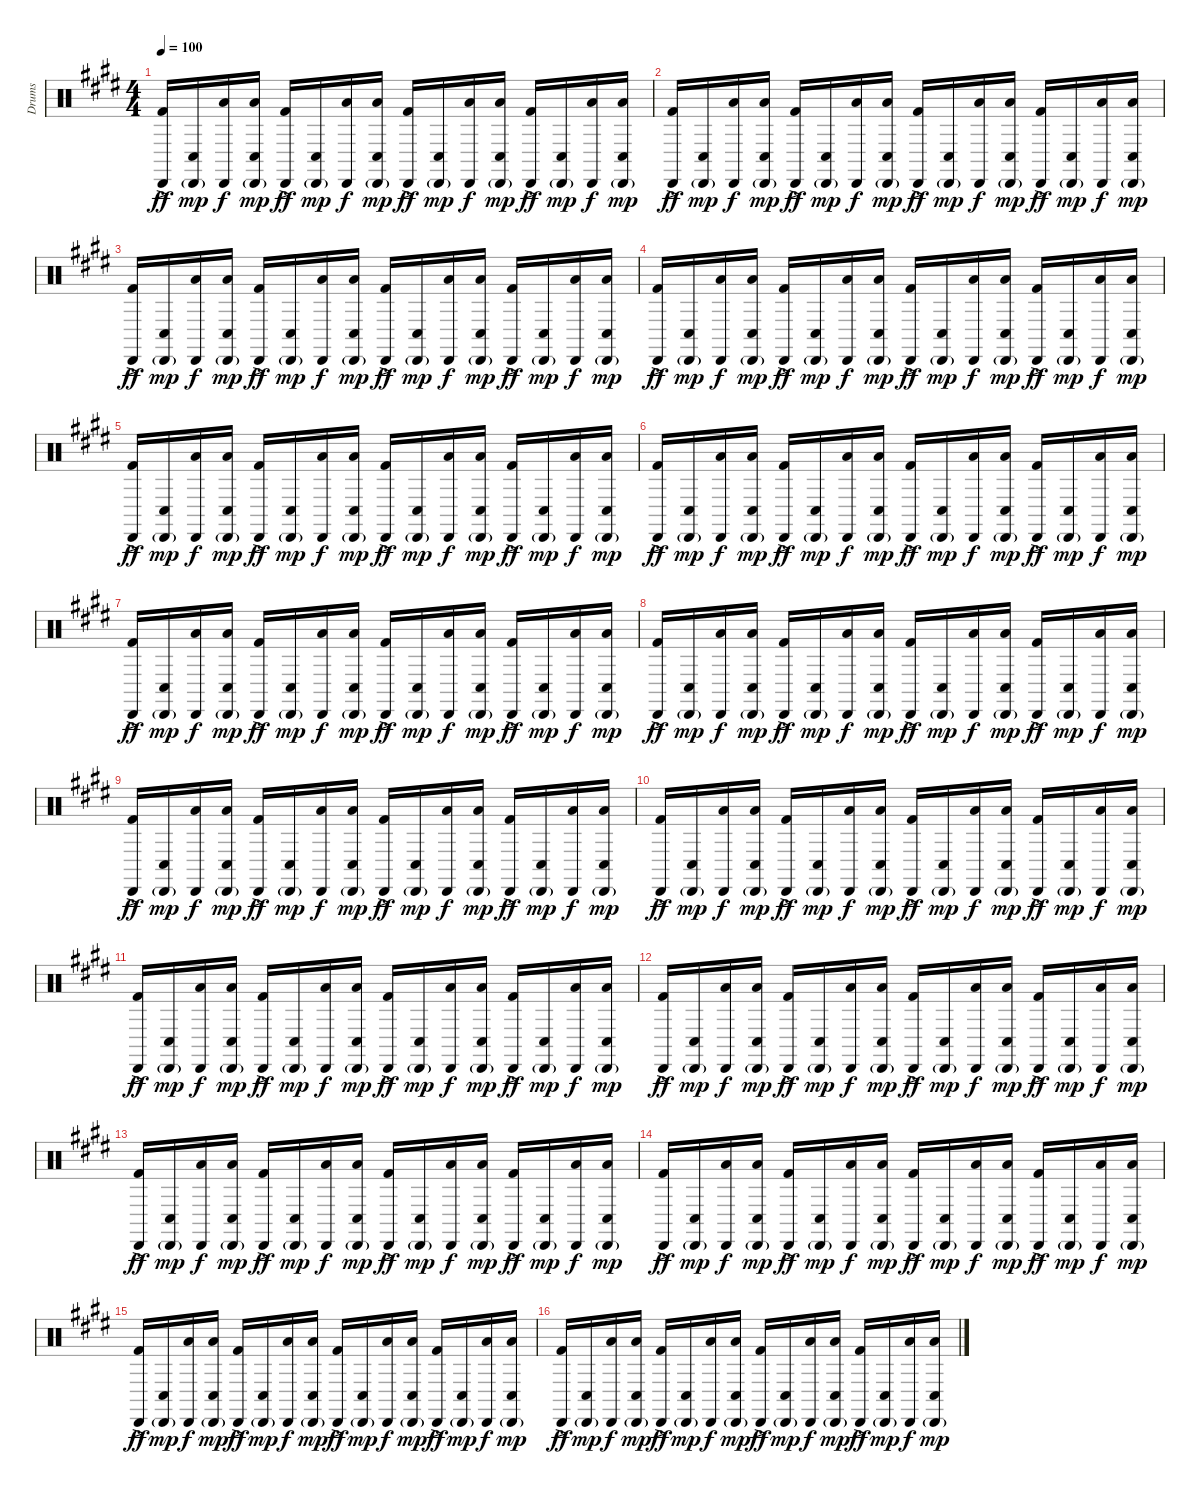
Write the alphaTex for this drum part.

\track ("Drums" "Drums") {instrument percussion}
\staff {score}
\articulation defaults
\ts (4 4)
\tempo 100
\clef neutral
\ks e
("Cabasa (hit)" "Kick (hit) 2"{ac}).16{dy ff} ("Cabasa (hit)"{g} "Conga low (hit)").16{dy mp} ("Cabasa (hit)" "Low Tom (hit)").16{dy f} ("Cabasa (hit)"{g} "Low Tom (hit)" "Conga low (hit)").16{dy mp} ("Cabasa (hit)" "Kick (hit) 2"{ac}).16{dy ff} ("Cabasa (hit)"{g} "Conga low (hit)").16{dy mp} ("Cabasa (hit)" "Low Tom (hit)").16{dy f} ("Cabasa (hit)"{g} "Low Tom (hit)" "Conga low (hit)").16{dy mp} ("Cabasa (hit)" "Kick (hit) 2"{ac}).16{dy ff} ("Cabasa (hit)"{g} "Conga low (hit)").16{dy mp} ("Cabasa (hit)" "Low Tom (hit)").16{dy f} ("Cabasa (hit)"{g} "Low Tom (hit)" "Conga low (hit)").16{dy mp} ("Cabasa (hit)" "Kick (hit) 2"{ac}).16{dy ff} ("Cabasa (hit)"{g} "Conga low (hit)").16{dy mp} ("Cabasa (hit)" "Low Tom (hit)").16{dy f} ("Cabasa (hit)"{g} "Low Tom (hit)" "Conga low (hit)").16{dy mp} |
("Cabasa (hit)" "Kick (hit) 2"{ac}).16{dy ff} ("Cabasa (hit)"{g} "Conga low (hit)").16{dy mp} ("Cabasa (hit)" "Low Tom (hit)").16{dy f} ("Cabasa (hit)"{g} "Low Tom (hit)" "Conga low (hit)").16{dy mp} ("Cabasa (hit)" "Kick (hit) 2"{ac}).16{dy ff} ("Cabasa (hit)"{g} "Conga low (hit)").16{dy mp} ("Cabasa (hit)" "Low Tom (hit)").16{dy f} ("Cabasa (hit)"{g} "Low Tom (hit)" "Conga low (hit)").16{dy mp} ("Cabasa (hit)" "Kick (hit) 2"{ac}).16{dy ff} ("Cabasa (hit)"{g} "Conga low (hit)").16{dy mp} ("Cabasa (hit)" "Low Tom (hit)").16{dy f} ("Cabasa (hit)"{g} "Low Tom (hit)" "Conga low (hit)").16{dy mp} ("Cabasa (hit)" "Kick (hit) 2"{ac}).16{dy ff} ("Cabasa (hit)"{g} "Conga low (hit)").16{dy mp} ("Cabasa (hit)" "Low Tom (hit)").16{dy f} ("Cabasa (hit)"{g} "Low Tom (hit)" "Conga low (hit)").16{dy mp} |
("Cabasa (hit)" "Kick (hit) 2"{ac}).16{dy ff} ("Cabasa (hit)"{g} "Conga low (hit)").16{dy mp} ("Cabasa (hit)" "Low Tom (hit)").16{dy f} ("Cabasa (hit)"{g} "Low Tom (hit)" "Conga low (hit)").16{dy mp} ("Cabasa (hit)" "Kick (hit) 2"{ac}).16{dy ff} ("Cabasa (hit)"{g} "Conga low (hit)").16{dy mp} ("Cabasa (hit)" "Low Tom (hit)").16{dy f} ("Cabasa (hit)"{g} "Low Tom (hit)" "Conga low (hit)").16{dy mp} ("Cabasa (hit)" "Kick (hit) 2"{ac}).16{dy ff} ("Cabasa (hit)"{g} "Conga low (hit)").16{dy mp} ("Cabasa (hit)" "Low Tom (hit)").16{dy f} ("Cabasa (hit)"{g} "Low Tom (hit)" "Conga low (hit)").16{dy mp} ("Cabasa (hit)" "Kick (hit) 2"{ac}).16{dy ff} ("Cabasa (hit)"{g} "Conga low (hit)").16{dy mp} ("Cabasa (hit)" "Low Tom (hit)").16{dy f} ("Cabasa (hit)"{g} "Low Tom (hit)" "Conga low (hit)").16{dy mp} |
("Cabasa (hit)" "Kick (hit) 2"{ac}).16{dy ff} ("Cabasa (hit)"{g} "Conga low (hit)").16{dy mp} ("Cabasa (hit)" "Low Tom (hit)").16{dy f} ("Cabasa (hit)"{g} "Low Tom (hit)" "Conga low (hit)").16{dy mp} ("Cabasa (hit)" "Kick (hit) 2"{ac}).16{dy ff} ("Cabasa (hit)"{g} "Conga low (hit)").16{dy mp} ("Cabasa (hit)" "Low Tom (hit)").16{dy f} ("Cabasa (hit)"{g} "Low Tom (hit)" "Conga low (hit)").16{dy mp} ("Cabasa (hit)" "Kick (hit) 2"{ac}).16{dy ff} ("Cabasa (hit)"{g} "Conga low (hit)").16{dy mp} ("Cabasa (hit)" "Low Tom (hit)").16{dy f} ("Cabasa (hit)"{g} "Low Tom (hit)" "Conga low (hit)").16{dy mp} ("Cabasa (hit)" "Kick (hit) 2"{ac}).16{dy ff} ("Cabasa (hit)"{g} "Conga low (hit)").16{dy mp} ("Cabasa (hit)" "Low Tom (hit)").16{dy f} ("Cabasa (hit)"{g} "Low Tom (hit)" "Conga low (hit)").16{dy mp} |
("Cabasa (hit)" "Kick (hit) 2"{ac}).16{dy ff} ("Cabasa (hit)"{g} "Conga low (hit)").16{dy mp} ("Cabasa (hit)" "Low Tom (hit)").16{dy f} ("Cabasa (hit)"{g} "Low Tom (hit)" "Conga low (hit)").16{dy mp} ("Cabasa (hit)" "Kick (hit) 2"{ac}).16{dy ff} ("Cabasa (hit)"{g} "Conga low (hit)").16{dy mp} ("Cabasa (hit)" "Low Tom (hit)").16{dy f} ("Cabasa (hit)"{g} "Low Tom (hit)" "Conga low (hit)").16{dy mp} ("Cabasa (hit)" "Kick (hit) 2"{ac}).16{dy ff} ("Cabasa (hit)"{g} "Conga low (hit)").16{dy mp} ("Cabasa (hit)" "Low Tom (hit)").16{dy f} ("Cabasa (hit)"{g} "Low Tom (hit)" "Conga low (hit)").16{dy mp} ("Cabasa (hit)" "Kick (hit) 2"{ac}).16{dy ff} ("Cabasa (hit)"{g} "Conga low (hit)").16{dy mp} ("Cabasa (hit)" "Low Tom (hit)").16{dy f} ("Cabasa (hit)"{g} "Low Tom (hit)" "Conga low (hit)").16{dy mp} |
("Cabasa (hit)" "Kick (hit) 2"{ac}).16{dy ff} ("Cabasa (hit)"{g} "Conga low (hit)").16{dy mp} ("Cabasa (hit)" "Low Tom (hit)").16{dy f} ("Cabasa (hit)"{g} "Low Tom (hit)" "Conga low (hit)").16{dy mp} ("Cabasa (hit)" "Kick (hit) 2"{ac}).16{dy ff} ("Cabasa (hit)"{g} "Conga low (hit)").16{dy mp} ("Cabasa (hit)" "Low Tom (hit)").16{dy f} ("Cabasa (hit)"{g} "Low Tom (hit)" "Conga low (hit)").16{dy mp} ("Cabasa (hit)" "Kick (hit) 2"{ac}).16{dy ff} ("Cabasa (hit)"{g} "Conga low (hit)").16{dy mp} ("Cabasa (hit)" "Low Tom (hit)").16{dy f} ("Cabasa (hit)"{g} "Low Tom (hit)" "Conga low (hit)").16{dy mp} ("Cabasa (hit)" "Kick (hit) 2"{ac}).16{dy ff} ("Cabasa (hit)"{g} "Conga low (hit)").16{dy mp} ("Cabasa (hit)" "Low Tom (hit)").16{dy f} ("Cabasa (hit)"{g} "Low Tom (hit)" "Conga low (hit)").16{dy mp} |
("Cabasa (hit)" "Kick (hit) 2"{ac}).16{dy ff} ("Cabasa (hit)"{g} "Conga low (hit)").16{dy mp} ("Cabasa (hit)" "Low Tom (hit)").16{dy f} ("Cabasa (hit)"{g} "Low Tom (hit)" "Conga low (hit)").16{dy mp} ("Cabasa (hit)" "Kick (hit) 2"{ac}).16{dy ff} ("Cabasa (hit)"{g} "Conga low (hit)").16{dy mp} ("Cabasa (hit)" "Low Tom (hit)").16{dy f} ("Cabasa (hit)"{g} "Low Tom (hit)" "Conga low (hit)").16{dy mp} ("Cabasa (hit)" "Kick (hit) 2"{ac}).16{dy ff} ("Cabasa (hit)"{g} "Conga low (hit)").16{dy mp} ("Cabasa (hit)" "Low Tom (hit)").16{dy f} ("Cabasa (hit)"{g} "Low Tom (hit)" "Conga low (hit)").16{dy mp} ("Cabasa (hit)" "Kick (hit) 2"{ac}).16{dy ff} ("Cabasa (hit)"{g} "Conga low (hit)").16{dy mp} ("Cabasa (hit)" "Low Tom (hit)").16{dy f} ("Cabasa (hit)"{g} "Low Tom (hit)" "Conga low (hit)").16{dy mp} |
("Cabasa (hit)" "Kick (hit) 2"{ac}).16{dy ff} ("Cabasa (hit)"{g} "Conga low (hit)").16{dy mp} ("Cabasa (hit)" "Low Tom (hit)").16{dy f} ("Cabasa (hit)"{g} "Low Tom (hit)" "Conga low (hit)").16{dy mp} ("Cabasa (hit)" "Kick (hit) 2"{ac}).16{dy ff} ("Cabasa (hit)"{g} "Conga low (hit)").16{dy mp} ("Cabasa (hit)" "Low Tom (hit)").16{dy f} ("Cabasa (hit)"{g} "Low Tom (hit)" "Conga low (hit)").16{dy mp} ("Cabasa (hit)" "Kick (hit) 2"{ac}).16{dy ff} ("Cabasa (hit)"{g} "Conga low (hit)").16{dy mp} ("Cabasa (hit)" "Low Tom (hit)").16{dy f} ("Cabasa (hit)"{g} "Low Tom (hit)" "Conga low (hit)").16{dy mp} ("Cabasa (hit)" "Kick (hit) 2"{ac}).16{dy ff} ("Cabasa (hit)"{g} "Conga low (hit)").16{dy mp} ("Cabasa (hit)" "Low Tom (hit)").16{dy f} ("Cabasa (hit)"{g} "Low Tom (hit)" "Conga low (hit)").16{dy mp} |
("Cabasa (hit)" "Kick (hit) 2"{ac}).16{dy ff} ("Cabasa (hit)"{g} "Conga low (hit)").16{dy mp} ("Cabasa (hit)" "Low Tom (hit)").16{dy f} ("Cabasa (hit)"{g} "Low Tom (hit)" "Conga low (hit)").16{dy mp} ("Cabasa (hit)" "Kick (hit) 2"{ac}).16{dy ff} ("Cabasa (hit)"{g} "Conga low (hit)").16{dy mp} ("Cabasa (hit)" "Low Tom (hit)").16{dy f} ("Cabasa (hit)"{g} "Low Tom (hit)" "Conga low (hit)").16{dy mp} ("Cabasa (hit)" "Kick (hit) 2"{ac}).16{dy ff} ("Cabasa (hit)"{g} "Conga low (hit)").16{dy mp} ("Cabasa (hit)" "Low Tom (hit)").16{dy f} ("Cabasa (hit)"{g} "Low Tom (hit)" "Conga low (hit)").16{dy mp} ("Cabasa (hit)" "Kick (hit) 2"{ac}).16{dy ff} ("Cabasa (hit)"{g} "Conga low (hit)").16{dy mp} ("Cabasa (hit)" "Low Tom (hit)").16{dy f} ("Cabasa (hit)"{g} "Low Tom (hit)" "Conga low (hit)").16{dy mp} |
("Cabasa (hit)" "Kick (hit) 2"{ac}).16{dy ff} ("Cabasa (hit)"{g} "Conga low (hit)").16{dy mp} ("Cabasa (hit)" "Low Tom (hit)").16{dy f} ("Cabasa (hit)"{g} "Low Tom (hit)" "Conga low (hit)").16{dy mp} ("Cabasa (hit)" "Kick (hit) 2"{ac}).16{dy ff} ("Cabasa (hit)"{g} "Conga low (hit)").16{dy mp} ("Cabasa (hit)" "Low Tom (hit)").16{dy f} ("Cabasa (hit)"{g} "Low Tom (hit)" "Conga low (hit)").16{dy mp} ("Cabasa (hit)" "Kick (hit) 2"{ac}).16{dy ff} ("Cabasa (hit)"{g} "Conga low (hit)").16{dy mp} ("Cabasa (hit)" "Low Tom (hit)").16{dy f} ("Cabasa (hit)"{g} "Low Tom (hit)" "Conga low (hit)").16{dy mp} ("Cabasa (hit)" "Kick (hit) 2"{ac}).16{dy ff} ("Cabasa (hit)"{g} "Conga low (hit)").16{dy mp} ("Cabasa (hit)" "Low Tom (hit)").16{dy f} ("Cabasa (hit)"{g} "Low Tom (hit)" "Conga low (hit)").16{dy mp} |
("Cabasa (hit)" "Kick (hit) 2"{ac}).16{dy ff} ("Cabasa (hit)"{g} "Conga low (hit)").16{dy mp} ("Cabasa (hit)" "Low Tom (hit)").16{dy f} ("Cabasa (hit)"{g} "Low Tom (hit)" "Conga low (hit)").16{dy mp} ("Cabasa (hit)" "Kick (hit) 2"{ac}).16{dy ff} ("Cabasa (hit)"{g} "Conga low (hit)").16{dy mp} ("Cabasa (hit)" "Low Tom (hit)").16{dy f} ("Cabasa (hit)"{g} "Low Tom (hit)" "Conga low (hit)").16{dy mp} ("Cabasa (hit)" "Kick (hit) 2"{ac}).16{dy ff} ("Cabasa (hit)"{g} "Conga low (hit)").16{dy mp} ("Cabasa (hit)" "Low Tom (hit)").16{dy f} ("Cabasa (hit)"{g} "Low Tom (hit)" "Conga low (hit)").16{dy mp} ("Cabasa (hit)" "Kick (hit) 2"{ac}).16{dy ff} ("Cabasa (hit)"{g} "Conga low (hit)").16{dy mp} ("Cabasa (hit)" "Low Tom (hit)").16{dy f} ("Cabasa (hit)"{g} "Low Tom (hit)" "Conga low (hit)").16{dy mp} |
("Cabasa (hit)" "Kick (hit) 2"{ac}).16{dy ff} ("Cabasa (hit)"{g} "Conga low (hit)").16{dy mp} ("Cabasa (hit)" "Low Tom (hit)").16{dy f} ("Cabasa (hit)"{g} "Low Tom (hit)" "Conga low (hit)").16{dy mp} ("Cabasa (hit)" "Kick (hit) 2"{ac}).16{dy ff} ("Cabasa (hit)"{g} "Conga low (hit)").16{dy mp} ("Cabasa (hit)" "Low Tom (hit)").16{dy f} ("Cabasa (hit)"{g} "Low Tom (hit)" "Conga low (hit)").16{dy mp} ("Cabasa (hit)" "Kick (hit) 2"{ac}).16{dy ff} ("Cabasa (hit)"{g} "Conga low (hit)").16{dy mp} ("Cabasa (hit)" "Low Tom (hit)").16{dy f} ("Cabasa (hit)"{g} "Low Tom (hit)" "Conga low (hit)").16{dy mp} ("Cabasa (hit)" "Kick (hit) 2"{ac}).16{dy ff} ("Cabasa (hit)"{g} "Conga low (hit)").16{dy mp} ("Cabasa (hit)" "Low Tom (hit)").16{dy f} ("Cabasa (hit)"{g} "Low Tom (hit)" "Conga low (hit)").16{dy mp} |
("Cabasa (hit)" "Kick (hit) 2"{ac}).16{dy ff} ("Cabasa (hit)"{g} "Conga low (hit)").16{dy mp} ("Cabasa (hit)" "Low Tom (hit)").16{dy f} ("Cabasa (hit)"{g} "Low Tom (hit)" "Conga low (hit)").16{dy mp} ("Cabasa (hit)" "Kick (hit) 2"{ac}).16{dy ff} ("Cabasa (hit)"{g} "Conga low (hit)").16{dy mp} ("Cabasa (hit)" "Low Tom (hit)").16{dy f} ("Cabasa (hit)"{g} "Low Tom (hit)" "Conga low (hit)").16{dy mp} ("Cabasa (hit)" "Kick (hit) 2"{ac}).16{dy ff} ("Cabasa (hit)"{g} "Conga low (hit)").16{dy mp} ("Cabasa (hit)" "Low Tom (hit)").16{dy f} ("Cabasa (hit)"{g} "Low Tom (hit)" "Conga low (hit)").16{dy mp} ("Cabasa (hit)" "Kick (hit) 2"{ac}).16{dy ff} ("Cabasa (hit)"{g} "Conga low (hit)").16{dy mp} ("Cabasa (hit)" "Low Tom (hit)").16{dy f} ("Cabasa (hit)"{g} "Low Tom (hit)" "Conga low (hit)").16{dy mp} |
("Cabasa (hit)" "Kick (hit) 2"{ac}).16{dy ff} ("Cabasa (hit)"{g} "Conga low (hit)").16{dy mp} ("Cabasa (hit)" "Low Tom (hit)").16{dy f} ("Cabasa (hit)"{g} "Low Tom (hit)" "Conga low (hit)").16{dy mp} ("Cabasa (hit)" "Kick (hit) 2"{ac}).16{dy ff} ("Cabasa (hit)"{g} "Conga low (hit)").16{dy mp} ("Cabasa (hit)" "Low Tom (hit)").16{dy f} ("Cabasa (hit)"{g} "Low Tom (hit)" "Conga low (hit)").16{dy mp} ("Cabasa (hit)" "Kick (hit) 2"{ac}).16{dy ff} ("Cabasa (hit)"{g} "Conga low (hit)").16{dy mp} ("Cabasa (hit)" "Low Tom (hit)").16{dy f} ("Cabasa (hit)"{g} "Low Tom (hit)" "Conga low (hit)").16{dy mp} ("Cabasa (hit)" "Kick (hit) 2"{ac}).16{dy ff} ("Cabasa (hit)"{g} "Conga low (hit)").16{dy mp} ("Cabasa (hit)" "Low Tom (hit)").16{dy f} ("Cabasa (hit)"{g} "Low Tom (hit)" "Conga low (hit)").16{dy mp} |
("Cabasa (hit)" "Kick (hit) 2"{ac}).16{dy ff} ("Cabasa (hit)"{g} "Conga low (hit)").16{dy mp} ("Cabasa (hit)" "Low Tom (hit)").16{dy f} ("Cabasa (hit)"{g} "Low Tom (hit)" "Conga low (hit)").16{dy mp} ("Cabasa (hit)" "Kick (hit) 2"{ac}).16{dy ff} ("Cabasa (hit)"{g} "Conga low (hit)").16{dy mp} ("Cabasa (hit)" "Low Tom (hit)").16{dy f} ("Cabasa (hit)"{g} "Low Tom (hit)" "Conga low (hit)").16{dy mp} ("Cabasa (hit)" "Kick (hit) 2"{ac}).16{dy ff} ("Cabasa (hit)"{g} "Conga low (hit)").16{dy mp} ("Cabasa (hit)" "Low Tom (hit)").16{dy f} ("Cabasa (hit)"{g} "Low Tom (hit)" "Conga low (hit)").16{dy mp} ("Cabasa (hit)" "Kick (hit) 2"{ac}).16{dy ff} ("Cabasa (hit)"{g} "Conga low (hit)").16{dy mp} ("Cabasa (hit)" "Low Tom (hit)").16{dy f} ("Cabasa (hit)"{g} "Low Tom (hit)" "Conga low (hit)").16{dy mp} |
("Cabasa (hit)" "Kick (hit) 2"{ac}).16{dy ff} ("Cabasa (hit)"{g} "Conga low (hit)").16{dy mp} ("Cabasa (hit)" "Low Tom (hit)").16{dy f} ("Cabasa (hit)"{g} "Low Tom (hit)" "Conga low (hit)").16{dy mp} ("Cabasa (hit)" "Kick (hit) 2"{ac}).16{dy ff} ("Cabasa (hit)"{g} "Conga low (hit)").16{dy mp} ("Cabasa (hit)" "Low Tom (hit)").16{dy f} ("Cabasa (hit)"{g} "Low Tom (hit)" "Conga low (hit)").16{dy mp} ("Cabasa (hit)" "Kick (hit) 2"{ac}).16{dy ff} ("Cabasa (hit)"{g} "Conga low (hit)").16{dy mp} ("Cabasa (hit)" "Low Tom (hit)").16{dy f} ("Cabasa (hit)"{g} "Low Tom (hit)" "Conga low (hit)").16{dy mp} ("Cabasa (hit)" "Kick (hit) 2"{ac}).16{dy ff} ("Cabasa (hit)"{g} "Conga low (hit)").16{dy mp} ("Cabasa (hit)" "Low Tom (hit)").16{dy f} ("Cabasa (hit)"{g} "Low Tom (hit)" "Conga low (hit)").16{dy mp}
